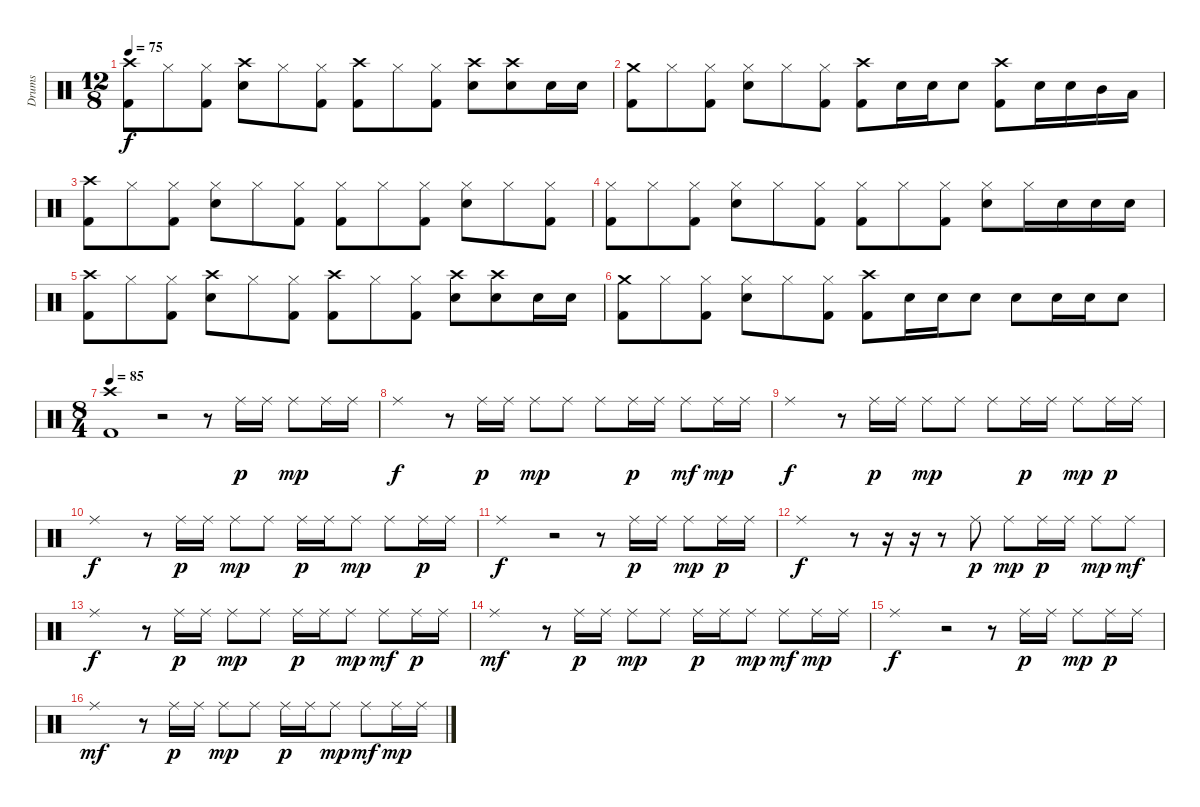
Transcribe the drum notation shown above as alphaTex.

\track ("Drums" "Drums") {instrument percussion}
\staff {score}
\articulation defaults
\ts (12 8)
\tempo 75
\clef neutral
\ks c
("Crash high (hit)" "Kick (hit) 2").8{dy f} "Hi-Hat (closed)".8 ("Hi-Hat (closed)" "Kick (hit) 2").8 ("Crash high (hit)" "Electric Snare (hit)").8 "Hi-Hat (closed)".8 ("Hi-Hat (closed)" "Kick (hit) 2").8 ("Crash high (hit)" "Kick (hit) 2").8 "Hi-Hat (closed)".8 ("Hi-Hat (closed)" "Kick (hit) 2").8 ("Crash high (hit)" "Electric Snare (hit)").8 ("Crash high (hit)" "Electric Snare (hit)").8 "Electric Snare (hit)".16 "Electric Snare (hit)".16 |
("Crash medium (hit)" "Kick (hit) 2").8 "Hi-Hat (closed)".8 ("Hi-Hat (closed)" "Kick (hit) 2").8 ("Hi-Hat (closed)" "Electric Snare (hit)").8 "Hi-Hat (closed)".8 ("Hi-Hat (closed)" "Kick (hit) 2").8 ("Crash high (hit)" "Kick (hit) 2").8 "Electric Snare (hit)".16 "Electric Snare (hit)".16 "Electric Snare (hit)".8 ("Crash high (hit)" "Kick (hit) 2").8 "Electric Snare (hit)".16 "Electric Snare (hit)".16 "Mid Tom (hit)".16 "Low Tom (hit)".16 |
("Crash high (hit)" "Kick (hit) 2").8 "Hi-Hat (closed)".8 ("Hi-Hat (closed)" "Kick (hit) 2").8 ("Hi-Hat (closed)" "Electric Snare (hit)").8 "Hi-Hat (closed)".8 ("Hi-Hat (closed)" "Kick (hit) 2").8 ("Hi-Hat (closed)" "Kick (hit) 2").8 "Hi-Hat (closed)".8 ("Hi-Hat (closed)" "Kick (hit) 2").8 ("Hi-Hat (closed)" "Electric Snare (hit)").8 "Hi-Hat (closed)".8 ("Hi-Hat (closed)" "Kick (hit) 2").8 |
("Hi-Hat (closed)" "Kick (hit) 2").8 "Hi-Hat (closed)".8 ("Hi-Hat (closed)" "Kick (hit) 2").8 ("Hi-Hat (closed)" "Electric Snare (hit)").8 "Hi-Hat (closed)".8 ("Hi-Hat (closed)" "Kick (hit) 2").8 ("Hi-Hat (closed)" "Kick (hit) 2").8 "Hi-Hat (closed)".8 ("Hi-Hat (closed)" "Kick (hit) 2").8 ("Hi-Hat (closed)" "Electric Snare (hit)").8 "Hi-Hat (closed)".16 "Electric Snare (hit)".16 "Electric Snare (hit)".16 "Electric Snare (hit)".16 |
("Crash high (hit)" "Kick (hit) 2").8 "Hi-Hat (closed)".8 ("Hi-Hat (closed)" "Kick (hit) 2").8 ("Crash high (hit)" "Electric Snare (hit)").8 "Hi-Hat (closed)".8 ("Hi-Hat (closed)" "Kick (hit) 2").8 ("Crash high (hit)" "Kick (hit) 2").8 "Hi-Hat (closed)".8 ("Hi-Hat (closed)" "Kick (hit) 2").8 ("Crash high (hit)" "Electric Snare (hit)").8 ("Crash high (hit)" "Electric Snare (hit)").8 "Electric Snare (hit)".16 "Electric Snare (hit)".16 |
("Crash medium (hit)" "Kick (hit) 2").8 "Hi-Hat (closed)".8 ("Hi-Hat (closed)" "Kick (hit) 2").8 ("Hi-Hat (closed)" "Electric Snare (hit)").8 "Hi-Hat (closed)".8 ("Hi-Hat (closed)" "Kick (hit) 2").8 ("Crash high (hit)" "Kick (hit) 2").8 "Electric Snare (hit)".16 "Electric Snare (hit)".16 "Electric Snare (hit)".8 "Electric Snare (hit)".8 "Electric Snare (hit)".16 "Electric Snare (hit)".16 "Electric Snare (hit)".8 |
\ts (8 4)
\tempo 85
("Crash high (hit)" "Kick (hit) 2").1 r.2 r.8 "Ride (middle)".16{dy p} "Ride (middle)".16 "Ride (middle)".8{dy mp} "Ride (middle)".16 "Ride (middle)".16 |
"Ride (middle)".1{dy f} r.8 "Ride (middle)".16{dy p} "Ride (middle)".16 "Ride (middle)".8{dy mp} "Ride (middle)".8 "Ride (middle)".8 "Ride (middle)".16{dy p} "Ride (middle)".16 "Ride (middle)".8{dy mf} "Ride (middle)".16{dy mp} "Ride (middle)".16 |
"Ride (middle)".1{dy f} r.8 "Ride (middle)".16{dy p} "Ride (middle)".16 "Ride (middle)".8{dy mp} "Ride (middle)".8 "Ride (middle)".8 "Ride (middle)".16{dy p} "Ride (middle)".16 "Ride (middle)".8{dy mp} "Ride (middle)".16{dy p} "Ride (middle)".16 |
"Ride (middle)".1{dy f} r.8 "Ride (middle)".16{dy p} "Ride (middle)".16 "Ride (middle)".8{dy mp} "Ride (middle)".8 "Ride (middle)".16{dy p} "Ride (middle)".16 "Ride (middle)".8{dy mp} "Ride (middle)".8 "Ride (middle)".16{dy p} "Ride (middle)".16 |
"Ride (middle)".1{dy f} r.2 r.8 "Ride (middle)".16{dy p} "Ride (middle)".16 "Ride (middle)".8{dy mp} "Ride (middle)".16{dy p} "Ride (middle)".16 |
"Ride (middle)".1{dy f} r.8 r.16 r.16 r.8 "Ride (middle)".8{dy p} "Ride (middle)".8{dy mp} "Ride (middle)".16{dy p} "Ride (middle)".16 "Ride (middle)".8{dy mp} "Ride (middle)".8{dy mf} |
"Ride (middle)".1{dy f} r.8 "Ride (middle)".16{dy p} "Ride (middle)".16 "Ride (middle)".8{dy mp} "Ride (middle)".8 "Ride (middle)".16{dy p} "Ride (middle)".16 "Ride (middle)".8{dy mp} "Ride (middle)".8{dy mf} "Ride (middle)".16{dy p} "Ride (middle)".16 |
"Ride (middle)".1{dy mf} r.8 "Ride (middle)".16{dy p} "Ride (middle)".16 "Ride (middle)".8{dy mp} "Ride (middle)".8 "Ride (middle)".16{dy p} "Ride (middle)".16 "Ride (middle)".8{dy mp} "Ride (middle)".8{dy mf} "Ride (middle)".16{dy mp} "Ride (middle)".16 |
"Ride (middle)".1{dy f} r.2 r.8 "Ride (middle)".16{dy p} "Ride (middle)".16 "Ride (middle)".8{dy mp} "Ride (middle)".16{dy p} "Ride (middle)".16 |
"Ride (middle)".1{dy mf} r.8 "Ride (middle)".16{dy p} "Ride (middle)".16 "Ride (middle)".8{dy mp} "Ride (middle)".8 "Ride (middle)".16{dy p} "Ride (middle)".16 "Ride (middle)".8{dy mp} "Ride (middle)".8{dy mf} "Ride (middle)".16{dy mp} "Ride (middle)".16
